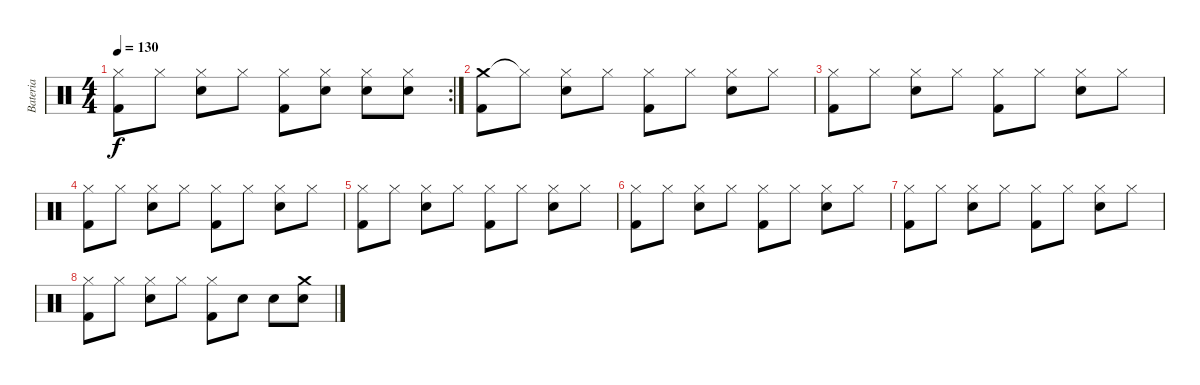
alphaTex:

\track ("Bateria" "Bateria") {instrument percussion}
\staff {score}
\articulation defaults
\rc 2
\ts (4 4)
\tempo 130
\clef neutral
\ks c
("Hi-Hat (closed)" "Kick (hit) 2").8{dy f} "Hi-Hat (closed)".8 ("Hi-Hat (closed)" "Snare (hit) 2").8 "Hi-Hat (closed)".8 ("Hi-Hat (closed)" "Kick (hit) 2").8 ("Hi-Hat (closed)" "Snare (hit) 2").8 ("Hi-Hat (closed)" "Snare (hit) 2").8 ("Hi-Hat (closed)" "Snare (hit) 2").8 |
("Crash medium (hit)" "Kick (hit) 2").8 "Hi-Hat (closed)"{t}.8 ("Hi-Hat (closed)" "Snare (hit) 2").8 "Hi-Hat (closed)".8 ("Hi-Hat (closed)" "Kick (hit) 2").8 "Hi-Hat (closed)".8 ("Hi-Hat (closed)" "Snare (hit) 2").8 "Hi-Hat (closed)".8 |
("Hi-Hat (closed)" "Kick (hit) 2").8 "Hi-Hat (closed)".8 ("Hi-Hat (closed)" "Snare (hit) 2").8 "Hi-Hat (closed)".8 ("Hi-Hat (closed)" "Kick (hit) 2").8 "Hi-Hat (closed)".8 ("Hi-Hat (closed)" "Snare (hit) 2").8 "Hi-Hat (closed)".8 |
("Hi-Hat (closed)" "Kick (hit) 2").8 "Hi-Hat (closed)".8 ("Hi-Hat (closed)" "Snare (hit) 2").8 "Hi-Hat (closed)".8 ("Hi-Hat (closed)" "Kick (hit) 2").8 "Hi-Hat (closed)".8 ("Hi-Hat (closed)" "Snare (hit) 2").8 "Hi-Hat (closed)".8 |
("Hi-Hat (closed)" "Kick (hit) 2").8 "Hi-Hat (closed)".8 ("Hi-Hat (closed)" "Snare (hit) 2").8 "Hi-Hat (closed)".8 ("Hi-Hat (closed)" "Kick (hit) 2").8 "Hi-Hat (closed)".8 ("Hi-Hat (closed)" "Snare (hit) 2").8 "Hi-Hat (closed)".8 |
("Hi-Hat (closed)" "Kick (hit) 2").8 "Hi-Hat (closed)".8 ("Hi-Hat (closed)" "Snare (hit) 2").8 "Hi-Hat (closed)".8 ("Hi-Hat (closed)" "Kick (hit) 2").8 "Hi-Hat (closed)".8 ("Hi-Hat (closed)" "Snare (hit) 2").8 "Hi-Hat (closed)".8 |
("Hi-Hat (closed)" "Kick (hit) 2").8 "Hi-Hat (closed)".8 ("Hi-Hat (closed)" "Snare (hit) 2").8 "Hi-Hat (closed)".8 ("Hi-Hat (closed)" "Kick (hit) 2").8 "Hi-Hat (closed)".8 ("Hi-Hat (closed)" "Snare (hit) 2").8 "Hi-Hat (closed)".8 |
("Hi-Hat (closed)" "Kick (hit) 2").8 "Hi-Hat (closed)".8 ("Hi-Hat (closed)" "Snare (hit) 2").8 "Hi-Hat (closed)".8 ("Hi-Hat (closed)" "Kick (hit) 2").8 "Snare (hit) 2".8 "Snare (hit) 2".8 ("Crash medium (hit)" "Snare (hit) 2").8
